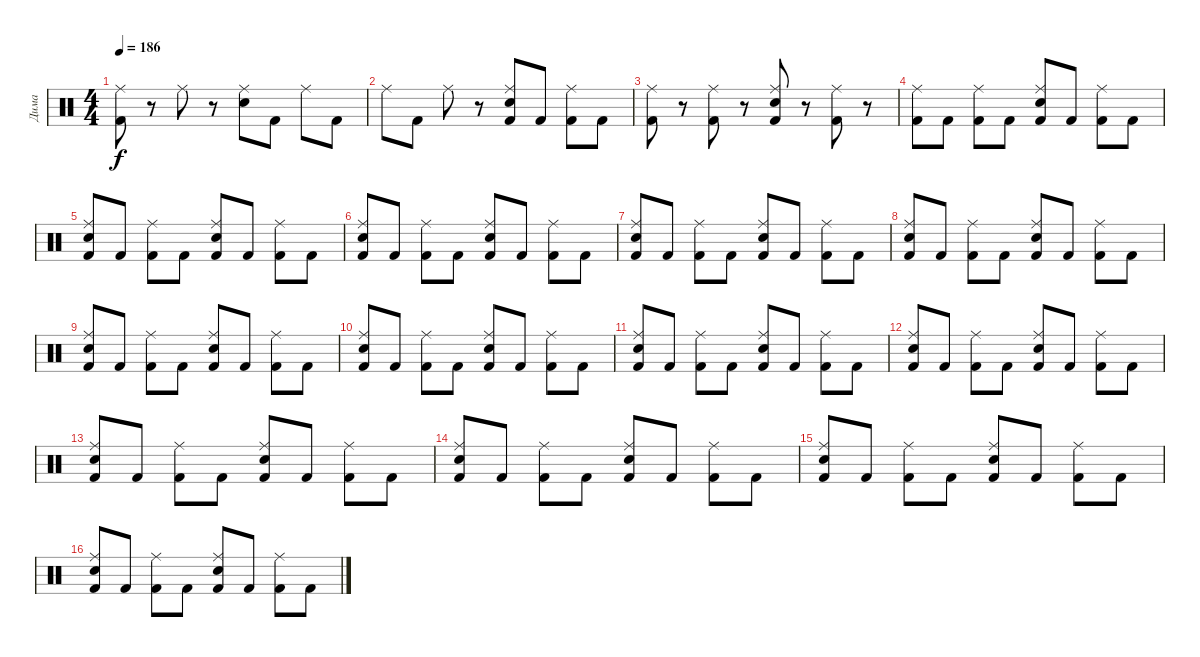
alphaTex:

\track ("Дима" "Дима") {instrument percussion}
\staff {score}
\articulation defaults
\ts (4 4)
\tempo 186
\clef neutral
\ks c
("Kick (hit) 2" "Ride (middle)").8{dy f} r.8 "Ride (middle)".8 r.8 ("Snare (hit) 2" "Ride (middle)").8 "Kick (hit) 2".8 "Ride (middle)".8 "Kick (hit) 2".8 |
"Ride (middle)".8 "Kick (hit) 2".8 "Ride (middle)".8 r.8 ("Kick (hit) 2" "Snare (hit) 2" "Ride (middle)").8 "Kick (hit) 2".8 ("Kick (hit) 2" "Ride (middle)").8 "Kick (hit) 2".8 |
("Kick (hit) 2" "Ride (middle)").8 r.8 ("Kick (hit) 2" "Ride (middle)").8 r.8 ("Kick (hit) 2" "Snare (hit) 2" "Ride (middle)").8 r.8 ("Kick (hit) 2" "Ride (middle)").8 r.8 |
("Kick (hit) 2" "Ride (middle)").8 "Kick (hit) 2".8 ("Kick (hit) 2" "Ride (middle)").8 "Kick (hit) 2".8 ("Kick (hit) 2" "Snare (hit) 2" "Ride (middle)").8 "Kick (hit) 2".8 ("Kick (hit) 2" "Ride (middle)").8 "Kick (hit) 2".8 |
("Ride (middle)" "Snare (hit) 2" "Kick (hit) 2").8 "Kick (hit) 2".8 ("Ride (middle)" "Kick (hit) 2").8 "Kick (hit) 2".8 ("Ride (middle)" "Snare (hit) 2" "Kick (hit) 2").8 "Kick (hit) 2".8 ("Ride (middle)" "Kick (hit) 2").8 "Kick (hit) 2".8 |
("Ride (middle)" "Snare (hit) 2" "Kick (hit) 2").8 "Kick (hit) 2".8 ("Ride (middle)" "Kick (hit) 2").8 "Kick (hit) 2".8 ("Ride (middle)" "Snare (hit) 2" "Kick (hit) 2").8 "Kick (hit) 2".8 ("Ride (middle)" "Kick (hit) 2").8 "Kick (hit) 2".8 |
("Ride (middle)" "Snare (hit) 2" "Kick (hit) 2").8 "Kick (hit) 2".8 ("Ride (middle)" "Kick (hit) 2").8 "Kick (hit) 2".8 ("Ride (middle)" "Snare (hit) 2" "Kick (hit) 2").8 "Kick (hit) 2".8 ("Ride (middle)" "Kick (hit) 2").8 "Kick (hit) 2".8 |
("Ride (middle)" "Snare (hit) 2" "Kick (hit) 2").8 "Kick (hit) 2".8 ("Ride (middle)" "Kick (hit) 2").8 "Kick (hit) 2".8 ("Ride (middle)" "Snare (hit) 2" "Kick (hit) 2").8 "Kick (hit) 2".8 ("Ride (middle)" "Kick (hit) 2").8 "Kick (hit) 2".8 |
("Ride (middle)" "Snare (hit) 2" "Kick (hit) 2").8 "Kick (hit) 2".8 ("Ride (middle)" "Kick (hit) 2").8 "Kick (hit) 2".8 ("Ride (middle)" "Snare (hit) 2" "Kick (hit) 2").8 "Kick (hit) 2".8 ("Ride (middle)" "Kick (hit) 2").8 "Kick (hit) 2".8 |
("Ride (middle)" "Snare (hit) 2" "Kick (hit) 2").8 "Kick (hit) 2".8 ("Ride (middle)" "Kick (hit) 2").8 "Kick (hit) 2".8 ("Ride (middle)" "Snare (hit) 2" "Kick (hit) 2").8 "Kick (hit) 2".8 ("Ride (middle)" "Kick (hit) 2").8 "Kick (hit) 2".8 |
("Ride (middle)" "Snare (hit) 2" "Kick (hit) 2").8 "Kick (hit) 2".8 ("Ride (middle)" "Kick (hit) 2").8 "Kick (hit) 2".8 ("Ride (middle)" "Snare (hit) 2" "Kick (hit) 2").8 "Kick (hit) 2".8 ("Ride (middle)" "Kick (hit) 2").8 "Kick (hit) 2".8 |
("Ride (middle)" "Snare (hit) 2" "Kick (hit) 2").8 "Kick (hit) 2".8 ("Ride (middle)" "Kick (hit) 2").8 "Kick (hit) 2".8 ("Ride (middle)" "Snare (hit) 2" "Kick (hit) 2").8 "Kick (hit) 2".8 ("Ride (middle)" "Kick (hit) 2").8 "Kick (hit) 2".8 |
("Ride (middle)" "Snare (hit) 2" "Kick (hit) 2").8 "Kick (hit) 2".8 ("Ride (middle)" "Kick (hit) 2").8 "Kick (hit) 2".8 ("Ride (middle)" "Snare (hit) 2" "Kick (hit) 2").8 "Kick (hit) 2".8 ("Ride (middle)" "Kick (hit) 2").8 "Kick (hit) 2".8 |
("Ride (middle)" "Snare (hit) 2" "Kick (hit) 2").8 "Kick (hit) 2".8 ("Ride (middle)" "Kick (hit) 2").8 "Kick (hit) 2".8 ("Ride (middle)" "Snare (hit) 2" "Kick (hit) 2").8 "Kick (hit) 2".8 ("Ride (middle)" "Kick (hit) 2").8 "Kick (hit) 2".8 |
("Ride (middle)" "Snare (hit) 2" "Kick (hit) 2").8 "Kick (hit) 2".8 ("Ride (middle)" "Kick (hit) 2").8 "Kick (hit) 2".8 ("Ride (middle)" "Snare (hit) 2" "Kick (hit) 2").8 "Kick (hit) 2".8 ("Ride (middle)" "Kick (hit) 2").8 "Kick (hit) 2".8 |
("Ride (middle)" "Snare (hit) 2" "Kick (hit) 2").8 "Kick (hit) 2".8 ("Ride (middle)" "Kick (hit) 2").8 "Kick (hit) 2".8 ("Ride (middle)" "Snare (hit) 2" "Kick (hit) 2").8 "Kick (hit) 2".8 ("Ride (middle)" "Kick (hit) 2").8 "Kick (hit) 2".8
